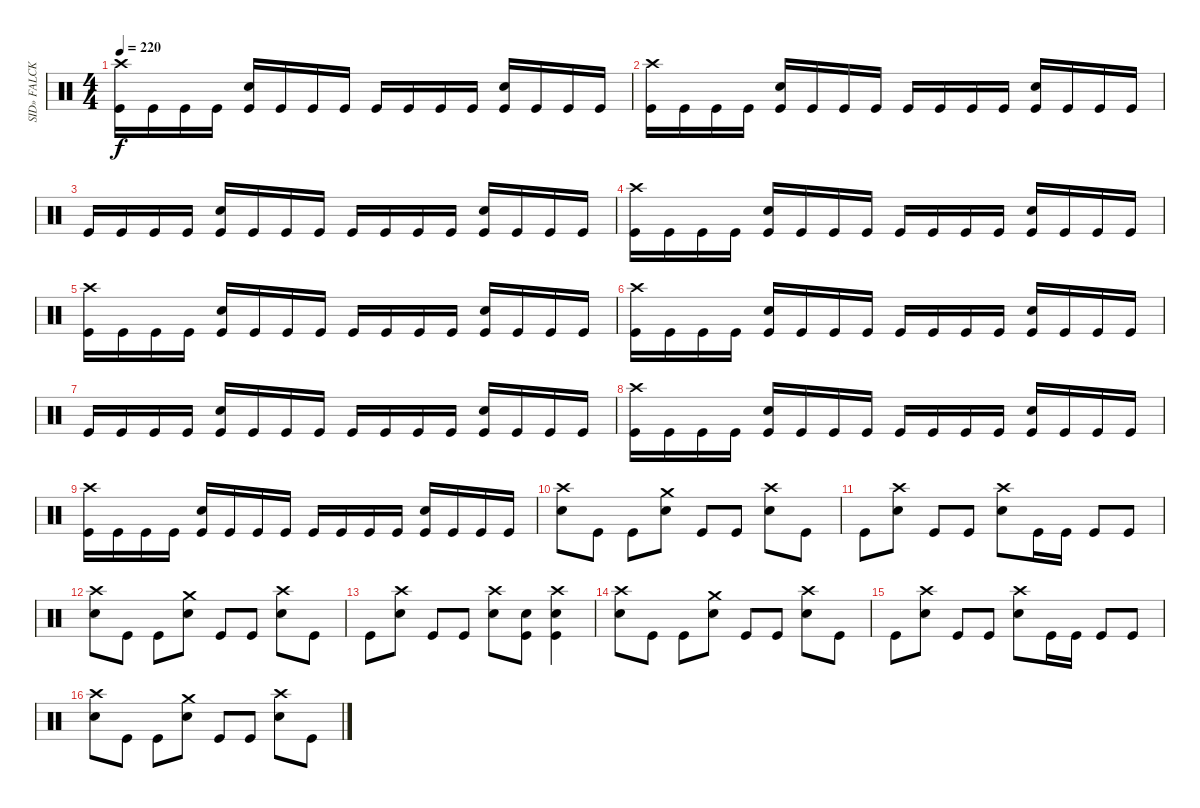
\track ("SID» FALCK- Drums " "SID» FALCK") {instrument percussion}
\staff {score}
\articulation defaults
\ts (4 4)
\tempo 220
\clef neutral
\ks c
("Crash high (hit)" "Kick (hit)").16{dy f} "Kick (hit)".16 "Kick (hit)".16 "Kick (hit)".16 ("Electric Snare (hit)" "Kick (hit)").16 "Kick (hit)".16 "Kick (hit)".16 "Kick (hit)".16 "Kick (hit)".16 "Kick (hit)".16 "Kick (hit)".16 "Kick (hit)".16 ("Electric Snare (hit)" "Kick (hit)").16 "Kick (hit)".16 "Kick (hit)".16 "Kick (hit)".16 |
("Crash high (hit)" "Kick (hit)").16 "Kick (hit)".16 "Kick (hit)".16 "Kick (hit)".16 ("Electric Snare (hit)" "Kick (hit)").16 "Kick (hit)".16 "Kick (hit)".16 "Kick (hit)".16 "Kick (hit)".16 "Kick (hit)".16 "Kick (hit)".16 "Kick (hit)".16 ("Electric Snare (hit)" "Kick (hit)").16 "Kick (hit)".16 "Kick (hit)".16 "Kick (hit)".16 |
"Kick (hit)".16 "Kick (hit)".16 "Kick (hit)".16 "Kick (hit)".16 ("Electric Snare (hit)" "Kick (hit)").16 "Kick (hit)".16 "Kick (hit)".16 "Kick (hit)".16 "Kick (hit)".16 "Kick (hit)".16 "Kick (hit)".16 "Kick (hit)".16 ("Electric Snare (hit)" "Kick (hit)").16 "Kick (hit)".16 "Kick (hit)".16 "Kick (hit)".16 |
("Crash high (hit)" "Kick (hit)").16 "Kick (hit)".16 "Kick (hit)".16 "Kick (hit)".16 ("Electric Snare (hit)" "Kick (hit)").16 "Kick (hit)".16 "Kick (hit)".16 "Kick (hit)".16 "Kick (hit)".16 "Kick (hit)".16 "Kick (hit)".16 "Kick (hit)".16 ("Electric Snare (hit)" "Kick (hit)").16 "Kick (hit)".16 "Kick (hit)".16 "Kick (hit)".16 |
("Crash high (hit)" "Kick (hit)").16 "Kick (hit)".16 "Kick (hit)".16 "Kick (hit)".16 ("Electric Snare (hit)" "Kick (hit)").16 "Kick (hit)".16 "Kick (hit)".16 "Kick (hit)".16 "Kick (hit)".16 "Kick (hit)".16 "Kick (hit)".16 "Kick (hit)".16 ("Electric Snare (hit)" "Kick (hit)").16 "Kick (hit)".16 "Kick (hit)".16 "Kick (hit)".16 |
("Crash high (hit)" "Kick (hit)").16 "Kick (hit)".16 "Kick (hit)".16 "Kick (hit)".16 ("Electric Snare (hit)" "Kick (hit)").16 "Kick (hit)".16 "Kick (hit)".16 "Kick (hit)".16 "Kick (hit)".16 "Kick (hit)".16 "Kick (hit)".16 "Kick (hit)".16 ("Electric Snare (hit)" "Kick (hit)").16 "Kick (hit)".16 "Kick (hit)".16 "Kick (hit)".16 |
"Kick (hit)".16 "Kick (hit)".16 "Kick (hit)".16 "Kick (hit)".16 ("Electric Snare (hit)" "Kick (hit)").16 "Kick (hit)".16 "Kick (hit)".16 "Kick (hit)".16 "Kick (hit)".16 "Kick (hit)".16 "Kick (hit)".16 "Kick (hit)".16 ("Electric Snare (hit)" "Kick (hit)").16 "Kick (hit)".16 "Kick (hit)".16 "Kick (hit)".16 |
("Crash high (hit)" "Kick (hit)").16 "Kick (hit)".16 "Kick (hit)".16 "Kick (hit)".16 ("Electric Snare (hit)" "Kick (hit)").16 "Kick (hit)".16 "Kick (hit)".16 "Kick (hit)".16 "Kick (hit)".16 "Kick (hit)".16 "Kick (hit)".16 "Kick (hit)".16 ("Electric Snare (hit)" "Kick (hit)").16 "Kick (hit)".16 "Kick (hit)".16 "Kick (hit)".16 |
("Crash high (hit)" "Kick (hit)").16 "Kick (hit)".16 "Kick (hit)".16 "Kick (hit)".16 ("Electric Snare (hit)" "Kick (hit)").16 "Kick (hit)".16 "Kick (hit)".16 "Kick (hit)".16 "Kick (hit)".16 "Kick (hit)".16 "Kick (hit)".16 "Kick (hit)".16 ("Electric Snare (hit)" "Kick (hit)").16 "Kick (hit)".16 "Kick (hit)".16 "Kick (hit)".16 |
("Crash high (hit)" "Electric Snare (hit)").8 "Kick (hit)".8 "Kick (hit)".8 ("Crash medium (hit)" "Electric Snare (hit)").8 "Kick (hit)".8 "Kick (hit)".8 ("Crash high (hit)" "Electric Snare (hit)").8 "Kick (hit)".8 |
"Kick (hit)".8 ("Crash high (hit)" "Electric Snare (hit)").8 "Kick (hit)".8 "Kick (hit)".8 ("Crash high (hit)" "Electric Snare (hit)").8 "Kick (hit)".16 "Kick (hit)".16 "Kick (hit)".8 "Kick (hit)".8 |
("Crash high (hit)" "Electric Snare (hit)").8 "Kick (hit)".8 "Kick (hit)".8 ("Crash medium (hit)" "Electric Snare (hit)").8 "Kick (hit)".8 "Kick (hit)".8 ("Crash high (hit)" "Electric Snare (hit)").8 "Kick (hit)".8 |
"Kick (hit)".8 ("Crash high (hit)" "Electric Snare (hit)").8 "Kick (hit)".8 "Kick (hit)".8 ("Crash high (hit)" "Electric Snare (hit)").8 ("Electric Snare (hit)" "Kick (hit)").8 ("Crash high (hit)" "Electric Snare (hit)" "Kick (hit)").4 |
("Crash high (hit)" "Electric Snare (hit)").8 "Kick (hit)".8 "Kick (hit)".8 ("Crash medium (hit)" "Electric Snare (hit)").8 "Kick (hit)".8 "Kick (hit)".8 ("Crash high (hit)" "Electric Snare (hit)").8 "Kick (hit)".8 |
"Kick (hit)".8 ("Crash high (hit)" "Electric Snare (hit)").8 "Kick (hit)".8 "Kick (hit)".8 ("Crash high (hit)" "Electric Snare (hit)").8 "Kick (hit)".16 "Kick (hit)".16 "Kick (hit)".8 "Kick (hit)".8 |
("Crash high (hit)" "Electric Snare (hit)").8 "Kick (hit)".8 "Kick (hit)".8 ("Crash medium (hit)" "Electric Snare (hit)").8 "Kick (hit)".8 "Kick (hit)".8 ("Crash high (hit)" "Electric Snare (hit)").8 "Kick (hit)".8
